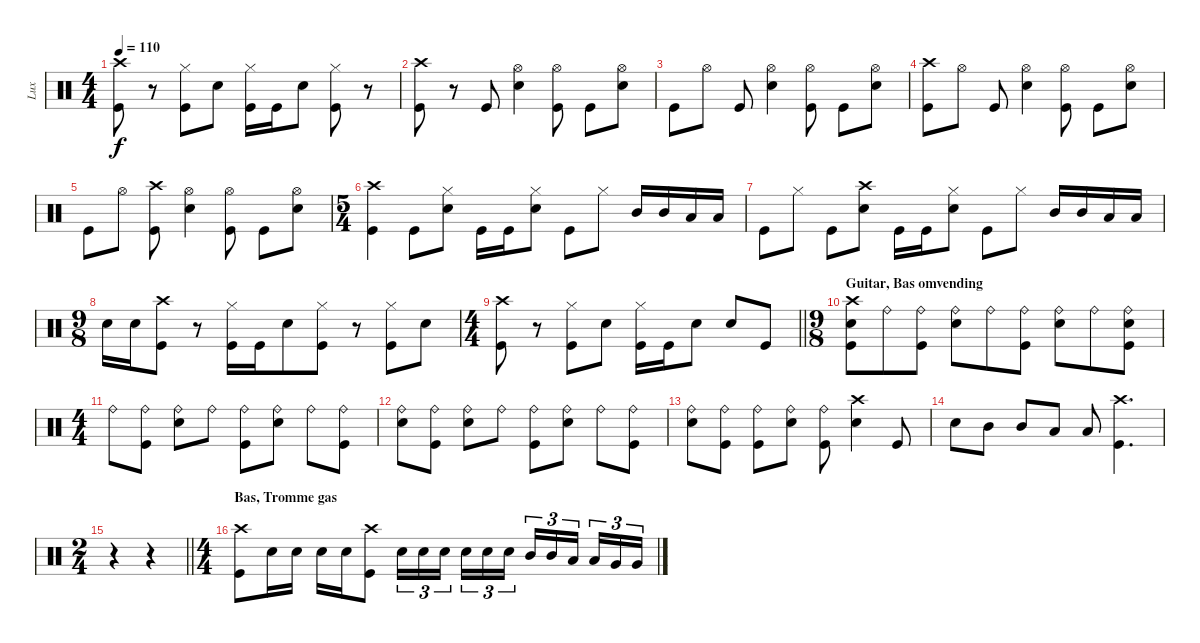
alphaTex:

\track ("Lux" "Lux") {mute instrument percussion}
\staff {score}
\articulation defaults
\ts (4 4)
\tempo 110
\clef neutral
\ks c
("Crash high (hit)" "Kick (hit)").8{dy f} r.8 ("Hi-Hat (closed)" "Kick (hit)").8 "Snare (hit) 2".8 ("Hi-Hat (closed)" "Kick (hit)").16 "Kick (hit)".16 "Snare (hit) 2".8 ("Hi-Hat (closed)" "Kick (hit)").8 r.8 |
("Crash high (hit)" "Kick (hit)").8 r.8 "Kick (hit)".8 ("Hi-Hat (open)" "Snare (hit) 2").4 ("Hi-Hat (open)" "Kick (hit)").8 "Kick (hit)".8 ("Hi-Hat (open)" "Snare (hit) 2").8 |
"Kick (hit)".8 "Hi-Hat (open)".8 "Kick (hit)".8 ("Hi-Hat (open)" "Snare (hit) 2").4 ("Hi-Hat (open)" "Kick (hit)").8 "Kick (hit)".8 ("Hi-Hat (open)" "Snare (hit) 2").8 |
("Crash high (hit)" "Kick (hit)").8 "Hi-Hat (open)".8 "Kick (hit)".8 ("Hi-Hat (open)" "Snare (hit) 2").4 ("Hi-Hat (open)" "Kick (hit)").8 "Kick (hit)".8 ("Hi-Hat (open)" "Snare (hit) 2").8 |
"Kick (hit)".8 "Hi-Hat (open)".8 ("Crash high (hit)" "Kick (hit)").8 ("Hi-Hat (open)" "Snare (hit) 2").4 ("Hi-Hat (open)" "Kick (hit)").8 "Kick (hit)".8 ("Hi-Hat (open)" "Snare (hit) 2").8 |
\ts (5 4)
("Crash high (hit)" "Kick (hit)").4 "Kick (hit)".8 ("Hi-Hat (closed)" "Snare (hit) 2").8 "Kick (hit)".16 "Kick (hit)".16 ("Hi-Hat (closed)" "Snare (hit) 2").8 "Kick (hit)".8 "Hi-Hat (closed)".8 "Mid Tom (hit)".16 "Mid Tom (hit)".16 "Low Tom (hit)".16 "Low Tom (hit)".16 |
"Kick (hit)".8 "Hi-Hat (closed)".8 "Kick (hit)".8 ("Crash high (hit)" "Snare (hit) 2").8 "Kick (hit)".16 "Kick (hit)".16 ("Hi-Hat (closed)" "Snare (hit) 2").8 "Kick (hit)".8 "Hi-Hat (closed)".8 "Mid Tom (hit)".16 "Mid Tom (hit)".16 "Low Tom (hit)".16 "Low Tom (hit)".16 |
\ts (9 8)
"Snare (hit) 2".16 "Snare (hit) 2".16 ("Crash high (hit)" "Kick (hit)").8 r.8 ("Hi-Hat (closed)" "Kick (hit)").16 "Kick (hit)".16 "Snare (hit) 2".8 ("Hi-Hat (closed)" "Kick (hit)").8 r.8 ("Hi-Hat (closed)" "Kick (hit)").8 "Snare (hit) 2".8 |
\ts (4 4)
\barLineRight lightlight
("Crash high (hit)" "Kick (hit)").8 r.8 ("Hi-Hat (closed)" "Kick (hit)").8 "Snare (hit) 2".8 ("Hi-Hat (closed)" "Kick (hit)").16 "Kick (hit)".16 "Snare (hit) 2".8 "Snare (hit) 2".8 "Kick (hit)".8 |
\ts (9 8)
\section ("" "Guitar, Bas omvending")
("Crash high (hit)" "Snare (hit) 2" "Kick (hit)").8 "Ride (bell)".8 ("Ride (bell)" "Kick (hit)").8 ("Ride (bell)" "Snare (hit) 2").8 "Ride (bell)".8 ("Ride (bell)" "Kick (hit)").8 ("Ride (bell)" "Snare (hit) 2").8 "Ride (bell)".8 ("Ride (bell)" "Snare (hit) 2" "Kick (hit)").8 |
\ts (4 4)
"Ride (bell)".8 ("Ride (bell)" "Kick (hit)").8 ("Ride (bell)" "Snare (hit) 2").8 "Ride (bell)".8 ("Ride (bell)" "Kick (hit)").8 ("Ride (bell)" "Snare (hit) 2").8 "Ride (bell)".8 ("Ride (bell)" "Kick (hit)").8 |
("Ride (bell)" "Snare (hit) 2").8 ("Ride (bell)" "Kick (hit)").8 ("Ride (bell)" "Snare (hit) 2").8 "Ride (bell)".8 ("Ride (bell)" "Kick (hit)").8 ("Ride (bell)" "Snare (hit) 2").8 "Ride (bell)".8 ("Ride (bell)" "Kick (hit)").8 |
("Ride (bell)" "Snare (hit) 2").8 ("Ride (bell)" "Kick (hit)").8 ("Ride (bell)" "Kick (hit)").8 ("Ride (bell)" "Snare (hit) 2").8 ("Ride (bell)" "Kick (hit)").8 ("Crash high (hit)" "Snare (hit) 2").4 "Kick (hit)".8 |
"Snare (hit) 2".8 "Mid Tom (hit)".8 "Mid Tom (hit)".8 "Low Tom (hit)".8 "Low Tom (hit)".8 ("Crash high (hit)" "Kick (hit)").4{d} |
\ts (2 4)
\barLineRight lightlight
r.4 r.4 |
\ts (4 4)
\section ("" "Bas, Tromme gas")
("Crash high (hit)" "Kick (hit)").8 "Snare (hit) 2".16 "Snare (hit) 2".16 "Snare (hit) 2".16 "Snare (hit) 2".16 ("Crash high (hit)" "Kick (hit)").8 "Snare (hit) 2".16{tu (3 2)} "Snare (hit) 2".16{tu (3 2)} "Snare (hit) 2".16{tu (3 2) beam splitsecondary} "Snare (hit) 2".16{tu (3 2)} "Snare (hit) 2".16{tu (3 2)} "Snare (hit) 2".16{tu (3 2)} "Mid Tom (hit)".16{tu (3 2)} "Mid Tom (hit)".16{tu (3 2)} "Low Tom (hit)".16{tu (3 2) beam splitsecondary} "Low Tom (hit)".16{tu (3 2)} "Very Low Tom (hit)".16{tu (3 2)} "Very Low Tom (hit)".16{tu (3 2)}
